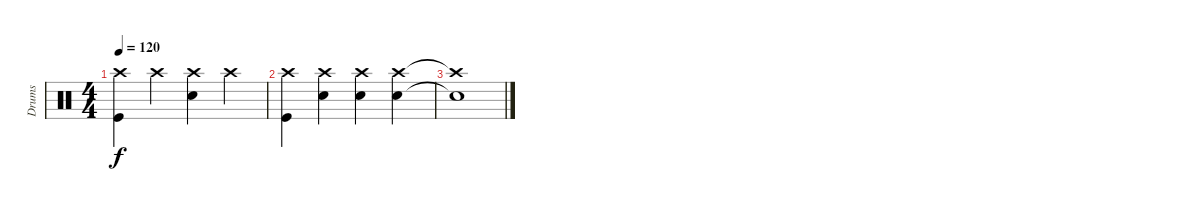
\track ("Drums" "Drums") {instrument percussion}
\staff {score}
\articulation defaults
\ts (4 4)
\tempo 120
\clef neutral
\ks c
("Crash high (hit)" "Kick (hit)").4{dy f} "Crash high (hit)".4 ("Crash high (hit)" "Electric Snare (hit)").4 "Crash high (hit)".4 |
("Crash high (hit)" "Kick (hit)").4 ("Crash high (hit)" "Electric Snare (hit)").4 ("Crash high (hit)" "Electric Snare (hit)").4 ("Crash high (hit)" "Electric Snare (hit)").4 |
("Crash high (hit)"{t} "Electric Snare (hit)"{t}).1
